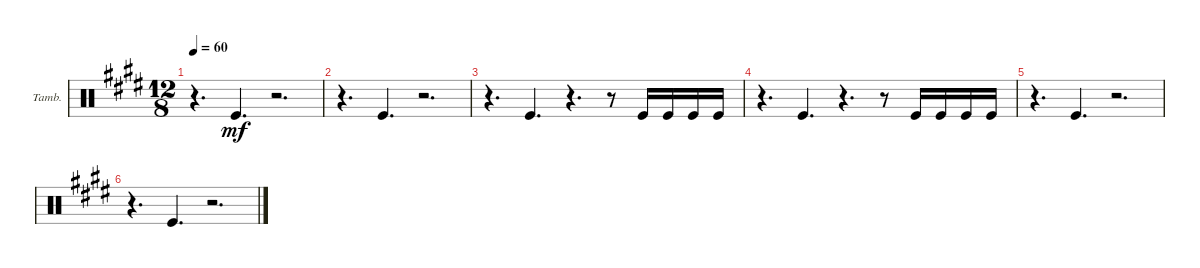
\defaultSystemsLayout 4
\bracketExtendMode groupsimilarinstruments
\firstSystemTrackNameOrientation horizontal
\otherSystemsTrackNameOrientation horizontal
\track ("Tambourine" "Tamb.") {instrument percussion}
\staff {score}
\articulation defaults
\ts (12 8)
\tempo 60
\clef neutral
\ks e
r.4{d dy mf} "Kick (hit)".4{d} r.2{d} |
r.4{d} "Kick (hit)".4{d} r.2{d} |
r.4{d} "Kick (hit)".4{d} r.4{d} r.8 "Kick (hit)".16 "Kick (hit)".16 "Kick (hit)".16 "Kick (hit)".16 |
r.4{d} "Kick (hit)".4{d} r.4{d} r.8 "Kick (hit)".16 "Kick (hit)".16 "Kick (hit)".16 "Kick (hit)".16 |
r.4{d} "Kick (hit)".4{d} r.2{d} |
r.4{d} "Kick (hit)".4{d} r.2{d}
